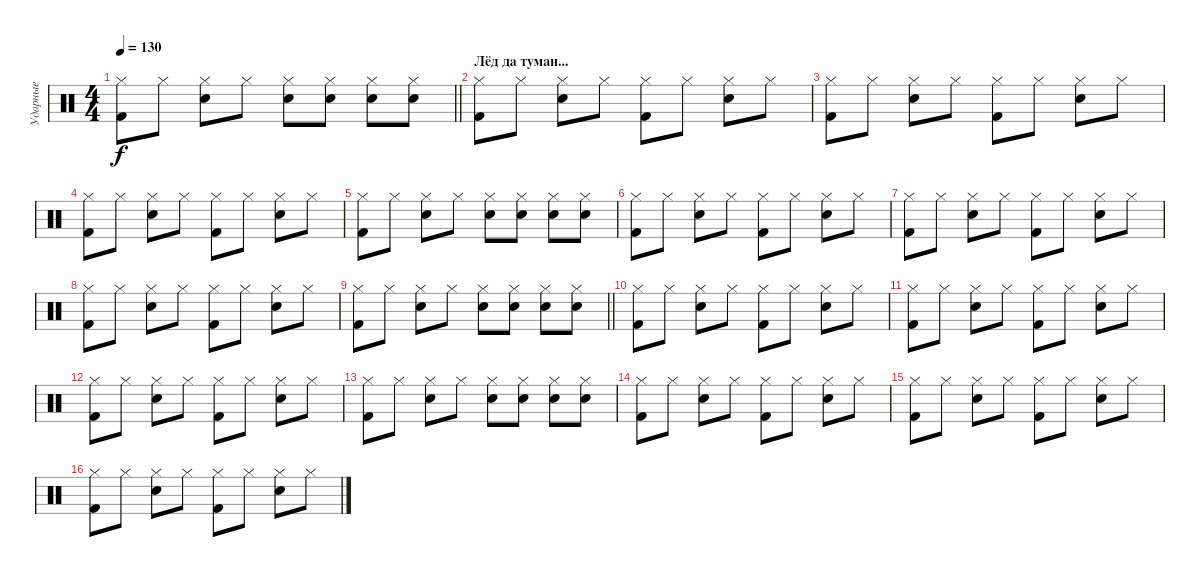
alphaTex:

\track ("Ударные" "Ударные") {instrument percussion}
\staff {score}
\articulation defaults
\ts (4 4)
\tempo 130
\clef neutral
\barLineRight lightlight
\ks c
("Hi-Hat (closed)" "Kick (hit) 2").8{dy f} "Hi-Hat (closed)".8 ("Hi-Hat (closed)" "Snare (hit) 2").8 "Hi-Hat (closed)".8 ("Hi-Hat (closed)" "Snare (hit) 2").8 ("Hi-Hat (closed)" "Snare (hit) 2").8 ("Hi-Hat (closed)" "Snare (hit) 2").8 ("Hi-Hat (closed)" "Snare (hit) 2").8 |
\section ("" "Лёд да туман...")
("Hi-Hat (closed)" "Kick (hit) 2").8 "Hi-Hat (closed)".8 ("Hi-Hat (closed)" "Snare (hit) 2").8 "Hi-Hat (closed)".8 ("Hi-Hat (closed)" "Kick (hit) 2").8 "Hi-Hat (closed)".8 ("Hi-Hat (closed)" "Snare (hit) 2").8 "Hi-Hat (closed)".8 |
("Hi-Hat (closed)" "Kick (hit) 2").8 "Hi-Hat (closed)".8 ("Hi-Hat (closed)" "Snare (hit) 2").8 "Hi-Hat (closed)".8 ("Hi-Hat (closed)" "Kick (hit) 2").8 "Hi-Hat (closed)".8 ("Hi-Hat (closed)" "Snare (hit) 2").8 "Hi-Hat (closed)".8 |
("Hi-Hat (closed)" "Kick (hit) 2").8 "Hi-Hat (closed)".8 ("Hi-Hat (closed)" "Snare (hit) 2").8 "Hi-Hat (closed)".8 ("Hi-Hat (closed)" "Kick (hit) 2").8 "Hi-Hat (closed)".8 ("Hi-Hat (closed)" "Snare (hit) 2").8 "Hi-Hat (closed)".8 |
("Hi-Hat (closed)" "Kick (hit) 2").8 "Hi-Hat (closed)".8 ("Hi-Hat (closed)" "Snare (hit) 2").8 "Hi-Hat (closed)".8 ("Hi-Hat (closed)" "Snare (hit) 2").8 ("Hi-Hat (closed)" "Snare (hit) 2").8 ("Hi-Hat (closed)" "Snare (hit) 2").8 ("Hi-Hat (closed)" "Snare (hit) 2").8 |
("Hi-Hat (closed)" "Kick (hit) 2").8 "Hi-Hat (closed)".8 ("Hi-Hat (closed)" "Snare (hit) 2").8 "Hi-Hat (closed)".8 ("Hi-Hat (closed)" "Kick (hit) 2").8 "Hi-Hat (closed)".8 ("Hi-Hat (closed)" "Snare (hit) 2").8 "Hi-Hat (closed)".8 |
("Hi-Hat (closed)" "Kick (hit) 2").8 "Hi-Hat (closed)".8 ("Hi-Hat (closed)" "Snare (hit) 2").8 "Hi-Hat (closed)".8 ("Hi-Hat (closed)" "Kick (hit) 2").8 "Hi-Hat (closed)".8 ("Hi-Hat (closed)" "Snare (hit) 2").8 "Hi-Hat (closed)".8 |
("Hi-Hat (closed)" "Kick (hit) 2").8 "Hi-Hat (closed)".8 ("Hi-Hat (closed)" "Snare (hit) 2").8 "Hi-Hat (closed)".8 ("Hi-Hat (closed)" "Kick (hit) 2").8 "Hi-Hat (closed)".8 ("Hi-Hat (closed)" "Snare (hit) 2").8 "Hi-Hat (closed)".8 |
\barLineRight lightlight
("Hi-Hat (closed)" "Kick (hit) 2").8 "Hi-Hat (closed)".8 ("Hi-Hat (closed)" "Snare (hit) 2").8 "Hi-Hat (closed)".8 ("Hi-Hat (closed)" "Snare (hit) 2").8 ("Hi-Hat (closed)" "Snare (hit) 2").8 ("Hi-Hat (closed)" "Snare (hit) 2").8 ("Hi-Hat (closed)" "Snare (hit) 2").8 |
("Hi-Hat (closed)" "Kick (hit) 2").8 "Hi-Hat (closed)".8 ("Hi-Hat (closed)" "Snare (hit) 2").8 "Hi-Hat (closed)".8 ("Hi-Hat (closed)" "Kick (hit) 2").8 "Hi-Hat (closed)".8 ("Hi-Hat (closed)" "Snare (hit) 2").8 "Hi-Hat (closed)".8 |
("Hi-Hat (closed)" "Kick (hit) 2").8 "Hi-Hat (closed)".8 ("Hi-Hat (closed)" "Snare (hit) 2").8 "Hi-Hat (closed)".8 ("Hi-Hat (closed)" "Kick (hit) 2").8 "Hi-Hat (closed)".8 ("Hi-Hat (closed)" "Snare (hit) 2").8 "Hi-Hat (closed)".8 |
("Hi-Hat (closed)" "Kick (hit) 2").8 "Hi-Hat (closed)".8 ("Hi-Hat (closed)" "Snare (hit) 2").8 "Hi-Hat (closed)".8 ("Hi-Hat (closed)" "Kick (hit) 2").8 "Hi-Hat (closed)".8 ("Hi-Hat (closed)" "Snare (hit) 2").8 "Hi-Hat (closed)".8 |
("Hi-Hat (closed)" "Kick (hit) 2").8 "Hi-Hat (closed)".8 ("Hi-Hat (closed)" "Snare (hit) 2").8 "Hi-Hat (closed)".8 ("Hi-Hat (closed)" "Snare (hit) 2").8 ("Hi-Hat (closed)" "Snare (hit) 2").8 ("Hi-Hat (closed)" "Snare (hit) 2").8 ("Hi-Hat (closed)" "Snare (hit) 2").8 |
("Hi-Hat (closed)" "Kick (hit) 2").8 "Hi-Hat (closed)".8 ("Hi-Hat (closed)" "Snare (hit) 2").8 "Hi-Hat (closed)".8 ("Hi-Hat (closed)" "Kick (hit) 2").8 "Hi-Hat (closed)".8 ("Hi-Hat (closed)" "Snare (hit) 2").8 "Hi-Hat (closed)".8 |
("Hi-Hat (closed)" "Kick (hit) 2").8 "Hi-Hat (closed)".8 ("Hi-Hat (closed)" "Snare (hit) 2").8 "Hi-Hat (closed)".8 ("Hi-Hat (closed)" "Kick (hit) 2").8 "Hi-Hat (closed)".8 ("Hi-Hat (closed)" "Snare (hit) 2").8 "Hi-Hat (closed)".8 |
("Hi-Hat (closed)" "Kick (hit) 2").8 "Hi-Hat (closed)".8 ("Hi-Hat (closed)" "Snare (hit) 2").8 "Hi-Hat (closed)".8 ("Hi-Hat (closed)" "Kick (hit) 2").8 "Hi-Hat (closed)".8 ("Hi-Hat (closed)" "Snare (hit) 2").8 "Hi-Hat (closed)".8
